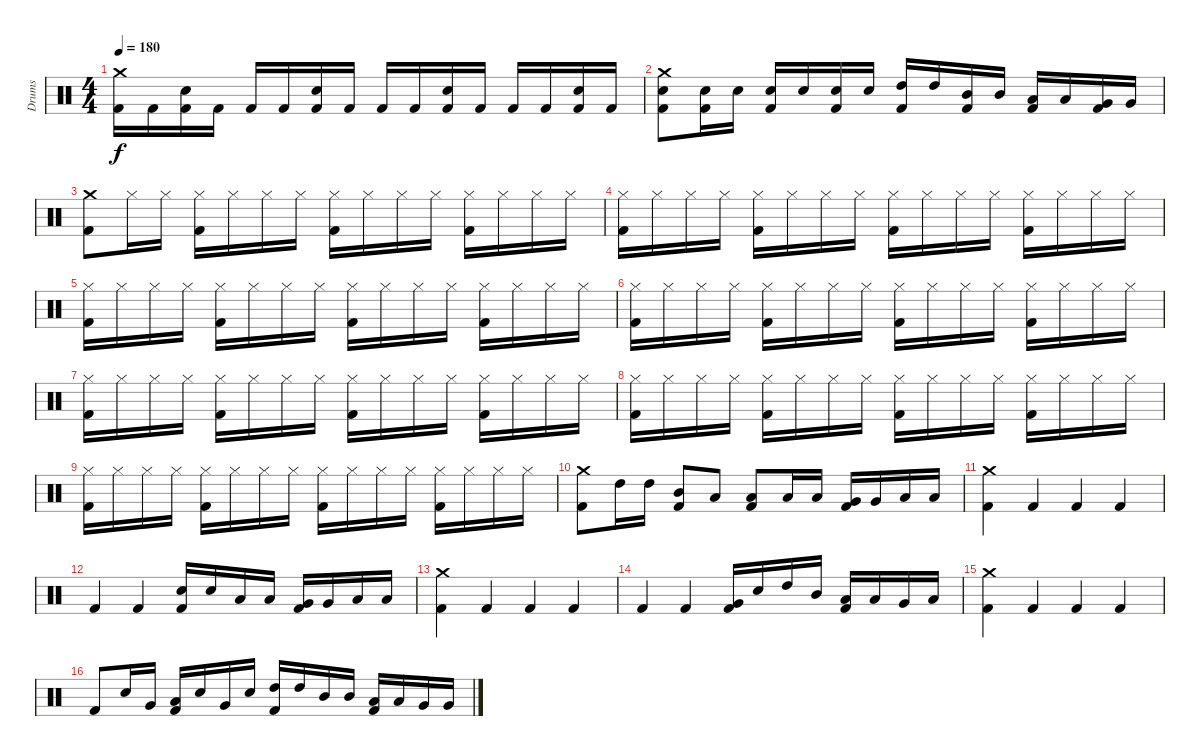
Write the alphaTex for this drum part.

\track ("Drums" "Drums") {instrument percussion}
\staff {score}
\articulation defaults
\ts (4 4)
\tempo 180
\clef neutral
\ks c
("Crash medium (hit)" "Kick (hit) 2").16{dy f} "Kick (hit) 2".16 ("Snare (hit) 2" "Kick (hit) 2").16 "Kick (hit) 2".16 "Kick (hit) 2".16 "Kick (hit) 2".16 ("Snare (hit) 2" "Kick (hit) 2").16 "Kick (hit) 2".16 "Kick (hit) 2".16 "Kick (hit) 2".16 ("Snare (hit) 2" "Kick (hit) 2").16 "Kick (hit) 2".16 "Kick (hit) 2".16 "Kick (hit) 2".16 ("Snare (hit) 2" "Kick (hit) 2").16 "Kick (hit) 2".16 |
("Crash medium (hit)" "Snare (hit) 2" "Kick (hit) 2").8 ("Snare (hit) 2" "Kick (hit) 2").16 "Snare (hit) 2".16 ("Snare (hit) 2" "Kick (hit) 2").16 "Snare (hit) 2".16 ("Snare (hit) 2" "Kick (hit) 2").16 "Snare (hit) 2".16 ("High Tom (hit)" "Kick (hit) 2").16 "High Tom (hit)".16 ("Mid Tom (hit)" "Kick (hit) 2").16 "Mid Tom (hit)".16 ("Low Tom (hit)" "Kick (hit) 2").16 "Low Tom (hit)".16 ("Very Low Tom (hit)" "Kick (hit) 2").16 "Very Low Tom (hit)".16 |
("Crash medium (hit)" "Kick (hit) 2").8 "Hi-Hat (closed)".16 "Hi-Hat (closed)".16 ("Hi-Hat (closed)" "Kick (hit) 2").16 "Hi-Hat (closed)".16 "Hi-Hat (closed)".16 "Hi-Hat (closed)".16 ("Hi-Hat (closed)" "Kick (hit) 2").16 "Hi-Hat (closed)".16 "Hi-Hat (closed)".16 "Hi-Hat (closed)".16 ("Hi-Hat (closed)" "Kick (hit) 2").16 "Hi-Hat (closed)".16 "Hi-Hat (closed)".16 "Hi-Hat (closed)".16 |
("Hi-Hat (closed)" "Kick (hit) 2").16 "Hi-Hat (closed)".16 "Hi-Hat (closed)".16 "Hi-Hat (closed)".16 ("Hi-Hat (closed)" "Kick (hit) 2").16 "Hi-Hat (closed)".16 "Hi-Hat (closed)".16 "Hi-Hat (closed)".16 ("Hi-Hat (closed)" "Kick (hit) 2").16 "Hi-Hat (closed)".16 "Hi-Hat (closed)".16 "Hi-Hat (closed)".16 ("Hi-Hat (closed)" "Kick (hit) 2").16 "Hi-Hat (closed)".16 "Hi-Hat (closed)".16 "Hi-Hat (closed)".16 |
("Hi-Hat (closed)" "Kick (hit) 2").16 "Hi-Hat (closed)".16 "Hi-Hat (closed)".16 "Hi-Hat (closed)".16 ("Hi-Hat (closed)" "Kick (hit) 2").16 "Hi-Hat (closed)".16 "Hi-Hat (closed)".16 "Hi-Hat (closed)".16 ("Hi-Hat (closed)" "Kick (hit) 2").16 "Hi-Hat (closed)".16 "Hi-Hat (closed)".16 "Hi-Hat (closed)".16 ("Hi-Hat (closed)" "Kick (hit) 2").16 "Hi-Hat (closed)".16 "Hi-Hat (closed)".16 "Hi-Hat (closed)".16 |
("Hi-Hat (closed)" "Kick (hit) 2").16 "Hi-Hat (closed)".16 "Hi-Hat (closed)".16 "Hi-Hat (closed)".16 ("Hi-Hat (closed)" "Kick (hit) 2").16 "Hi-Hat (closed)".16 "Hi-Hat (closed)".16 "Hi-Hat (closed)".16 ("Hi-Hat (closed)" "Kick (hit) 2").16 "Hi-Hat (closed)".16 "Hi-Hat (closed)".16 "Hi-Hat (closed)".16 ("Hi-Hat (closed)" "Kick (hit) 2").16 "Hi-Hat (closed)".16 "Hi-Hat (closed)".16 "Hi-Hat (closed)".16 |
("Hi-Hat (closed)" "Kick (hit) 2").16 "Hi-Hat (closed)".16 "Hi-Hat (closed)".16 "Hi-Hat (closed)".16 ("Hi-Hat (closed)" "Kick (hit) 2").16 "Hi-Hat (closed)".16 "Hi-Hat (closed)".16 "Hi-Hat (closed)".16 ("Hi-Hat (closed)" "Kick (hit) 2").16 "Hi-Hat (closed)".16 "Hi-Hat (closed)".16 "Hi-Hat (closed)".16 ("Hi-Hat (closed)" "Kick (hit) 2").16 "Hi-Hat (closed)".16 "Hi-Hat (closed)".16 "Hi-Hat (closed)".16 |
("Hi-Hat (closed)" "Kick (hit) 2").16 "Hi-Hat (closed)".16 "Hi-Hat (closed)".16 "Hi-Hat (closed)".16 ("Hi-Hat (closed)" "Kick (hit) 2").16 "Hi-Hat (closed)".16 "Hi-Hat (closed)".16 "Hi-Hat (closed)".16 ("Hi-Hat (closed)" "Kick (hit) 2").16 "Hi-Hat (closed)".16 "Hi-Hat (closed)".16 "Hi-Hat (closed)".16 ("Hi-Hat (closed)" "Kick (hit) 2").16 "Hi-Hat (closed)".16 "Hi-Hat (closed)".16 "Hi-Hat (closed)".16 |
("Hi-Hat (closed)" "Kick (hit) 2").16 "Hi-Hat (closed)".16 "Hi-Hat (closed)".16 "Hi-Hat (closed)".16 ("Hi-Hat (closed)" "Kick (hit) 2").16 "Hi-Hat (closed)".16 "Hi-Hat (closed)".16 "Hi-Hat (closed)".16 ("Hi-Hat (closed)" "Kick (hit) 2").16 "Hi-Hat (closed)".16 "Hi-Hat (closed)".16 "Hi-Hat (closed)".16 ("Hi-Hat (closed)" "Kick (hit) 2").16 "Hi-Hat (closed)".16 "Hi-Hat (closed)".16 "Hi-Hat (closed)".16 |
("Crash medium (hit)" "Kick (hit) 2").8 "High Tom (hit)".16 "High Tom (hit)".16 ("Mid Tom (hit)" "Kick (hit) 2").8 "Low Tom (hit)".8 ("Low Tom (hit)" "Kick (hit) 2").8 "Low Tom (hit)".16 "Low Tom (hit)".16 ("Very Low Tom (hit)" "Kick (hit) 2").16 "Very Low Tom (hit)".16 "Low Floor Tom (hit)".16 "Low Floor Tom (hit)".16 |
("Crash medium (hit)" "Kick (hit) 2").4 "Kick (hit) 2".4 "Kick (hit) 2".4 "Kick (hit) 2".4 |
"Kick (hit) 2".4 "Kick (hit) 2".4 ("Snare (hit) 2" "Kick (hit) 2").16 "Snare (hit) 2".16 "Low Tom (hit)".16 "Low Tom (hit)".16 ("Very Low Tom (hit)" "Kick (hit) 2").16 "Very Low Tom (hit)".16 "Low Floor Tom (hit)".16 "Low Floor Tom (hit)".16 |
("Crash medium (hit)" "Kick (hit) 2").4 "Kick (hit) 2".4 "Kick (hit) 2".4 "Kick (hit) 2".4 |
"Kick (hit) 2".4 "Kick (hit) 2".4 ("Very Low Tom (hit)" "Kick (hit) 2").16 "Snare (hit) 2".16 "High Tom (hit)".16 "Mid Tom (hit)".16 ("Low Tom (hit)" "Kick (hit) 2").16 "Low Tom (hit)".16 "Very Low Tom (hit)".16 "Low Floor Tom (hit)".16 |
("Crash medium (hit)" "Kick (hit) 2").4 "Kick (hit) 2".4 "Kick (hit) 2".4 "Kick (hit) 2".4 |
"Kick (hit) 2".8 "Snare (hit) 2".16 "Very Low Tom (hit)".16 ("Low Floor Tom (hit)" "Kick (hit) 2").16 "Snare (hit) 2".16 "Very Low Tom (hit)".16 "Snare (hit) 2".16 ("High Tom (hit)" "Kick (hit) 2").16 "High Tom (hit)".16 "Mid Tom (hit)".16 "Mid Tom (hit)".16 ("Low Tom (hit)" "Kick (hit) 2").16 "Low Tom (hit)".16 "Very Low Tom (hit)".16 "Very Low Tom (hit)".16
